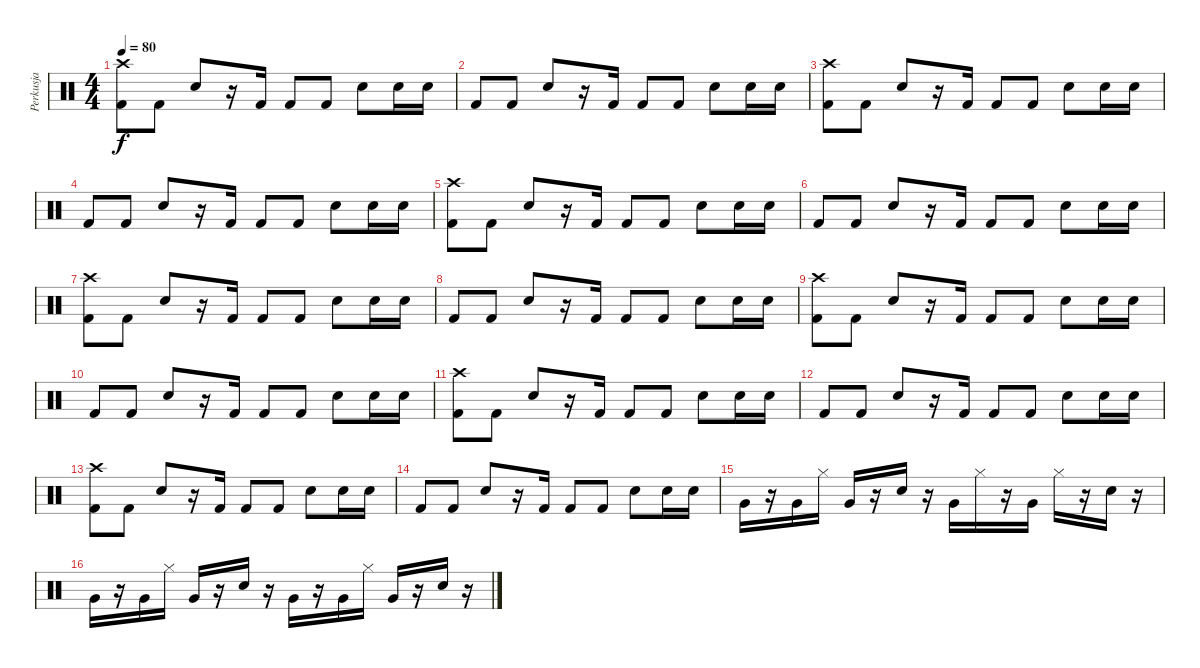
\track ("Perkusja" "Perkusja") {instrument percussion}
\staff {score}
\articulation defaults
\ts (4 4)
\tempo 80
\clef neutral
\ks c
("Crash high (hit)" "Kick (hit) 2").8{dy f} "Kick (hit) 2".8 "Electric Snare (hit)".8 r.16 "Kick (hit) 2".16 "Kick (hit) 2".8 "Kick (hit) 2".8 "Electric Snare (hit)".8 "Electric Snare (hit)".16 "Electric Snare (hit)".16 |
"Kick (hit) 2".8 "Kick (hit) 2".8 "Electric Snare (hit)".8 r.16 "Kick (hit) 2".16 "Kick (hit) 2".8 "Kick (hit) 2".8 "Electric Snare (hit)".8 "Electric Snare (hit)".16 "Electric Snare (hit)".16 |
("Crash high (hit)" "Kick (hit) 2").8 "Kick (hit) 2".8 "Electric Snare (hit)".8 r.16 "Kick (hit) 2".16 "Kick (hit) 2".8 "Kick (hit) 2".8 "Electric Snare (hit)".8 "Electric Snare (hit)".16 "Electric Snare (hit)".16 |
"Kick (hit) 2".8 "Kick (hit) 2".8 "Electric Snare (hit)".8 r.16 "Kick (hit) 2".16 "Kick (hit) 2".8 "Kick (hit) 2".8 "Electric Snare (hit)".8 "Electric Snare (hit)".16 "Electric Snare (hit)".16 |
("Crash high (hit)" "Kick (hit) 2").8 "Kick (hit) 2".8 "Electric Snare (hit)".8 r.16 "Kick (hit) 2".16 "Kick (hit) 2".8 "Kick (hit) 2".8 "Electric Snare (hit)".8 "Electric Snare (hit)".16 "Electric Snare (hit)".16 |
"Kick (hit) 2".8 "Kick (hit) 2".8 "Electric Snare (hit)".8 r.16 "Kick (hit) 2".16 "Kick (hit) 2".8 "Kick (hit) 2".8 "Electric Snare (hit)".8 "Electric Snare (hit)".16 "Electric Snare (hit)".16 |
("Crash high (hit)" "Kick (hit) 2").8 "Kick (hit) 2".8 "Electric Snare (hit)".8 r.16 "Kick (hit) 2".16 "Kick (hit) 2".8 "Kick (hit) 2".8 "Electric Snare (hit)".8 "Electric Snare (hit)".16 "Electric Snare (hit)".16 |
"Kick (hit) 2".8 "Kick (hit) 2".8 "Electric Snare (hit)".8 r.16 "Kick (hit) 2".16 "Kick (hit) 2".8 "Kick (hit) 2".8 "Electric Snare (hit)".8 "Electric Snare (hit)".16 "Electric Snare (hit)".16 |
("Crash high (hit)" "Kick (hit) 2").8 "Kick (hit) 2".8 "Electric Snare (hit)".8 r.16 "Kick (hit) 2".16 "Kick (hit) 2".8 "Kick (hit) 2".8 "Electric Snare (hit)".8 "Electric Snare (hit)".16 "Electric Snare (hit)".16 |
"Kick (hit) 2".8 "Kick (hit) 2".8 "Electric Snare (hit)".8 r.16 "Kick (hit) 2".16 "Kick (hit) 2".8 "Kick (hit) 2".8 "Electric Snare (hit)".8 "Electric Snare (hit)".16 "Electric Snare (hit)".16 |
("Crash high (hit)" "Kick (hit) 2").8 "Kick (hit) 2".8 "Electric Snare (hit)".8 r.16 "Kick (hit) 2".16 "Kick (hit) 2".8 "Kick (hit) 2".8 "Electric Snare (hit)".8 "Electric Snare (hit)".16 "Electric Snare (hit)".16 |
"Kick (hit) 2".8 "Kick (hit) 2".8 "Electric Snare (hit)".8 r.16 "Kick (hit) 2".16 "Kick (hit) 2".8 "Kick (hit) 2".8 "Electric Snare (hit)".8 "Electric Snare (hit)".16 "Electric Snare (hit)".16 |
("Crash high (hit)" "Kick (hit) 2").8 "Kick (hit) 2".8 "Electric Snare (hit)".8 r.16 "Kick (hit) 2".16 "Kick (hit) 2".8 "Kick (hit) 2".8 "Electric Snare (hit)".8 "Electric Snare (hit)".16 "Electric Snare (hit)".16 |
"Kick (hit) 2".8 "Kick (hit) 2".8 "Electric Snare (hit)".8 r.16 "Kick (hit) 2".16 "Kick (hit) 2".8 "Kick (hit) 2".8 "Electric Snare (hit)".8 "Electric Snare (hit)".16 "Electric Snare (hit)".16 |
"Very Low Tom (hit)".16 r.16 "Very Low Tom (hit)".16 "Hi-Hat (closed)".16 "Very Low Tom (hit)".16 r.16 "Snare (hit) 2".16 r.16 "Very Low Tom (hit)".16 "Hi-Hat (closed)".16 r.16 "Very Low Tom (hit)".16 "Hi-Hat (closed)".16 r.16 "Snare (hit) 2".16 r.16 |
"Very Low Tom (hit)".16 r.16 "Very Low Tom (hit)".16 "Hi-Hat (closed)".16 "Very Low Tom (hit)".16 r.16 "Snare (hit) 2".16 r.16 "Very Low Tom (hit)".16 r.16 "Very Low Tom (hit)".16 "Hi-Hat (closed)".16 "Very Low Tom (hit)".16 r.16 "Snare (hit) 2".16 r.16
